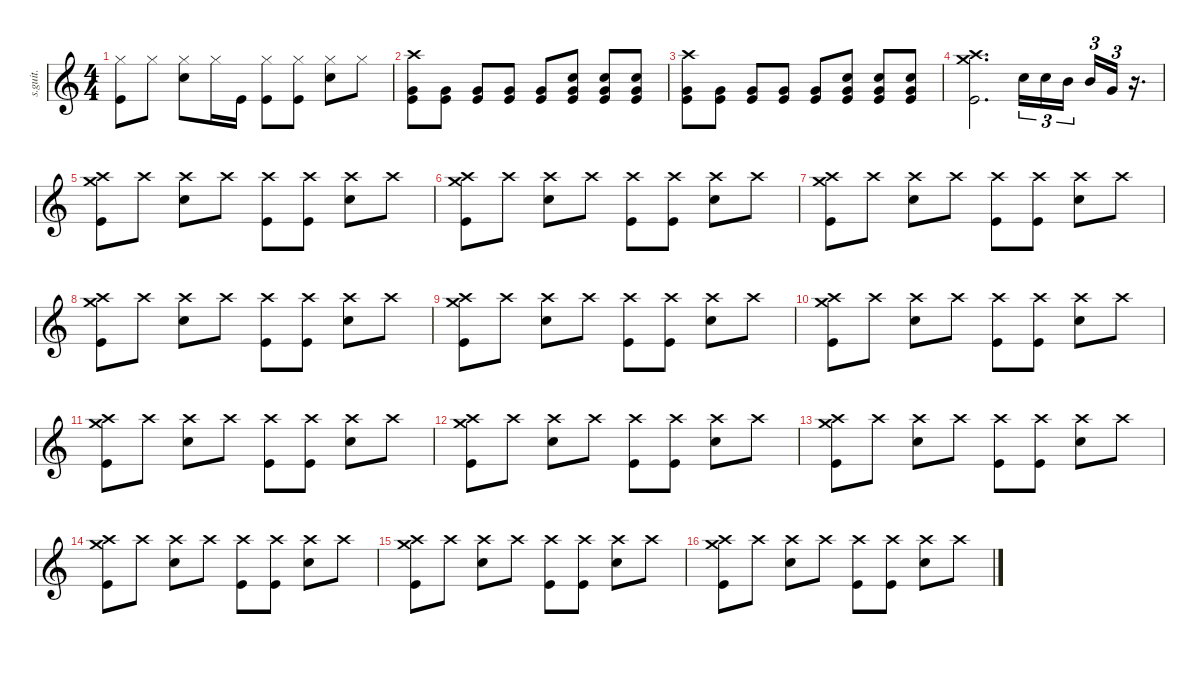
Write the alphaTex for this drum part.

\defaultSystemsLayout 4
\hideDynamics
\bracketExtendMode nobrackets
\track ("Drumkit" "s.guit.") {instrument percussion}
\staff {score}
\articulation defaults
\ts (4 4)
\tempo (65 hide)
\clef g2
\ks c
("Kick (hit)" "Hi-Hat (closed)").8{lyrics (0 "") lyrics (1 "") lyrics (2 "") lyrics (3 "") lyrics (4 "") dy mf} "Hi-Hat (closed)".8{lyrics (0 "") lyrics (1 "") lyrics (2 "") lyrics (3 "") lyrics (4 "")} ("Hi-Hat (closed)" "Snare (hit) 2").8{lyrics (0 "") lyrics (1 "") lyrics (2 "") lyrics (3 "") lyrics (4 "")} "Hi-Hat (closed)".16{lyrics (0 "") lyrics (1 "") lyrics (2 "") lyrics (3 "") lyrics (4 "")} "Kick (hit)".16{lyrics (0 "") lyrics (1 "") lyrics (2 "") lyrics (3 "") lyrics (4 "") dy p} ("Hi-Hat (closed)" "Kick (hit)").8{lyrics (0 "") lyrics (1 "") lyrics (2 "") lyrics (3 "") lyrics (4 "") dy mf} ("Kick (hit)" "Hi-Hat (closed)").8{lyrics (0 "") lyrics (1 "") lyrics (2 "") lyrics (3 "") lyrics (4 "")} ("Hi-Hat (closed)" "Snare (hit) 2").8{lyrics (0 "") lyrics (1 "") lyrics (2 "") lyrics (3 "") lyrics (4 "")} "Hi-Hat (closed)".8{lyrics (0 "") lyrics (1 "") lyrics (2 "") lyrics (3 "") lyrics (4 "")} |
("Kick (hit)" "Very Low Tom (hit)" "Crash high (hit)").8{lyrics (0 "") lyrics (1 "") lyrics (2 "") lyrics (3 "") lyrics (4 "")} ("Very Low Tom (hit)" "Kick (hit)").8{lyrics (0 "") lyrics (1 "") lyrics (2 "") lyrics (3 "") lyrics (4 "")} ("Very Low Tom (hit)" "Kick (hit)").8{lyrics (0 "") lyrics (1 "") lyrics (2 "") lyrics (3 "") lyrics (4 "")} ("Kick (hit)" "Very Low Tom (hit)").8{lyrics (0 "") lyrics (1 "") lyrics (2 "") lyrics (3 "") lyrics (4 "")} ("Very Low Tom (hit)" "Kick (hit)").8{lyrics (0 "") lyrics (1 "") lyrics (2 "") lyrics (3 "") lyrics (4 "")} ("Snare (hit) 2" "Very Low Tom (hit)" "Kick (hit)").8{lyrics (0 "") lyrics (1 "") lyrics (2 "") lyrics (3 "") lyrics (4 "")} ("Snare (hit) 2" "Very Low Tom (hit)" "Kick (hit)").8{lyrics (0 "") lyrics (1 "") lyrics (2 "") lyrics (3 "") lyrics (4 "")} ("Snare (hit) 2" "Very Low Tom (hit)" "Kick (hit)").8{lyrics (0 "") lyrics (1 "") lyrics (2 "") lyrics (3 "") lyrics (4 "")} |
("Kick (hit)" "Very Low Tom (hit)" "Crash high (hit)").8{lyrics (0 "") lyrics (1 "") lyrics (2 "") lyrics (3 "") lyrics (4 "")} ("Very Low Tom (hit)" "Kick (hit)").8{lyrics (0 "") lyrics (1 "") lyrics (2 "") lyrics (3 "") lyrics (4 "")} ("Very Low Tom (hit)" "Kick (hit)").8{lyrics (0 "") lyrics (1 "") lyrics (2 "") lyrics (3 "") lyrics (4 "")} ("Kick (hit)" "Very Low Tom (hit)").8{lyrics (0 "") lyrics (1 "") lyrics (2 "") lyrics (3 "") lyrics (4 "")} ("Very Low Tom (hit)" "Kick (hit)").8{lyrics (0 "") lyrics (1 "") lyrics (2 "") lyrics (3 "") lyrics (4 "")} ("Snare (hit) 2" "Very Low Tom (hit)" "Kick (hit)").8{lyrics (0 "") lyrics (1 "") lyrics (2 "") lyrics (3 "") lyrics (4 "")} ("Snare (hit) 2" "Very Low Tom (hit)" "Kick (hit)").8{lyrics (0 "") lyrics (1 "") lyrics (2 "") lyrics (3 "") lyrics (4 "")} ("Very Low Tom (hit)" "Kick (hit)" "Snare (hit) 2").8{lyrics (0 "") lyrics (1 "") lyrics (2 "") lyrics (3 "") lyrics (4 "")} |
("Crash high (hit)" "Crash medium (hit)" "Kick (hit)").2{d lyrics (0 "") lyrics (1 "") lyrics (2 "") lyrics (3 "") lyrics (4 "")} "Snare (hit) 2".16{tu (3 2) lyrics (0 "") lyrics (1 "") lyrics (2 "") lyrics (3 "") lyrics (4 "")} "Snare (hit) 2".16{tu (3 2) lyrics (0 "") lyrics (1 "") lyrics (2 "") lyrics (3 "") lyrics (4 "")} "Mid Tom (hit)".16{tu (3 2) lyrics (0 "") lyrics (1 "") lyrics (2 "") lyrics (3 "") lyrics (4 "")} "Mid Tom (hit)".16{tu (3 2) lyrics (0 "") lyrics (1 "") lyrics (2 "") lyrics (3 "") lyrics (4 "")} "Very Low Tom (hit)".16{tu (3 2) lyrics (0 "") lyrics (1 "") lyrics (2 "") lyrics (3 "") lyrics (4 "")} r.16{d} |
("Crash high (hit)" "Crash medium (hit)" "Kick (hit)").8{lyrics (0 "") lyrics (1 "") lyrics (2 "") lyrics (3 "") lyrics (4 "")} "Crash high (hit)".8{lyrics (0 "") lyrics (1 "") lyrics (2 "") lyrics (3 "") lyrics (4 "")} ("Crash high (hit)" "Snare (hit) 2").8{lyrics (0 "") lyrics (1 "") lyrics (2 "") lyrics (3 "") lyrics (4 "")} "Crash high (hit)".8{lyrics (0 "") lyrics (1 "") lyrics (2 "") lyrics (3 "") lyrics (4 "")} ("Crash high (hit)" "Kick (hit)").8{lyrics (0 "") lyrics (1 "") lyrics (2 "") lyrics (3 "") lyrics (4 "")} ("Crash high (hit)" "Kick (hit)").8{lyrics (0 "") lyrics (1 "") lyrics (2 "") lyrics (3 "") lyrics (4 "")} ("Crash high (hit)" "Snare (hit) 2").8{lyrics (0 "") lyrics (1 "") lyrics (2 "") lyrics (3 "") lyrics (4 "")} "Crash high (hit)".8{lyrics (0 "") lyrics (1 "") lyrics (2 "") lyrics (3 "") lyrics (4 "")} |
("Crash high (hit)" "Crash medium (hit)" "Kick (hit)").8{lyrics (0 "") lyrics (1 "") lyrics (2 "") lyrics (3 "") lyrics (4 "")} "Crash high (hit)".8{lyrics (0 "") lyrics (1 "") lyrics (2 "") lyrics (3 "") lyrics (4 "")} ("Crash high (hit)" "Snare (hit) 2").8{lyrics (0 "") lyrics (1 "") lyrics (2 "") lyrics (3 "") lyrics (4 "")} "Crash high (hit)".8{lyrics (0 "") lyrics (1 "") lyrics (2 "") lyrics (3 "") lyrics (4 "")} ("Crash high (hit)" "Kick (hit)").8{lyrics (0 "") lyrics (1 "") lyrics (2 "") lyrics (3 "") lyrics (4 "")} ("Crash high (hit)" "Kick (hit)").8{lyrics (0 "") lyrics (1 "") lyrics (2 "") lyrics (3 "") lyrics (4 "")} ("Crash high (hit)" "Snare (hit) 2").8{lyrics (0 "") lyrics (1 "") lyrics (2 "") lyrics (3 "") lyrics (4 "")} "Crash high (hit)".8{lyrics (0 "") lyrics (1 "") lyrics (2 "") lyrics (3 "") lyrics (4 "")} |
("Crash high (hit)" "Crash medium (hit)" "Kick (hit)").8{lyrics (0 "") lyrics (1 "") lyrics (2 "") lyrics (3 "") lyrics (4 "")} "Crash high (hit)".8{lyrics (0 "") lyrics (1 "") lyrics (2 "") lyrics (3 "") lyrics (4 "")} ("Crash high (hit)" "Snare (hit) 2").8{lyrics (0 "") lyrics (1 "") lyrics (2 "") lyrics (3 "") lyrics (4 "")} "Crash high (hit)".8{lyrics (0 "") lyrics (1 "") lyrics (2 "") lyrics (3 "") lyrics (4 "")} ("Crash high (hit)" "Kick (hit)").8{lyrics (0 "") lyrics (1 "") lyrics (2 "") lyrics (3 "") lyrics (4 "")} ("Crash high (hit)" "Kick (hit)").8{lyrics (0 "") lyrics (1 "") lyrics (2 "") lyrics (3 "") lyrics (4 "")} ("Crash high (hit)" "Snare (hit) 2").8{lyrics (0 "") lyrics (1 "") lyrics (2 "") lyrics (3 "") lyrics (4 "")} "Crash high (hit)".8{lyrics (0 "") lyrics (1 "") lyrics (2 "") lyrics (3 "") lyrics (4 "")} |
("Crash high (hit)" "Crash medium (hit)" "Kick (hit)").8{lyrics (0 "") lyrics (1 "") lyrics (2 "") lyrics (3 "") lyrics (4 "")} "Crash high (hit)".8{lyrics (0 "") lyrics (1 "") lyrics (2 "") lyrics (3 "") lyrics (4 "")} ("Crash high (hit)" "Snare (hit) 2").8{lyrics (0 "") lyrics (1 "") lyrics (2 "") lyrics (3 "") lyrics (4 "")} "Crash high (hit)".8{lyrics (0 "") lyrics (1 "") lyrics (2 "") lyrics (3 "") lyrics (4 "")} ("Crash high (hit)" "Kick (hit)").8{lyrics (0 "") lyrics (1 "") lyrics (2 "") lyrics (3 "") lyrics (4 "")} ("Crash high (hit)" "Kick (hit)").8{lyrics (0 "") lyrics (1 "") lyrics (2 "") lyrics (3 "") lyrics (4 "")} ("Crash high (hit)" "Snare (hit) 2").8{lyrics (0 "") lyrics (1 "") lyrics (2 "") lyrics (3 "") lyrics (4 "")} "Crash high (hit)".8{lyrics (0 "") lyrics (1 "") lyrics (2 "") lyrics (3 "") lyrics (4 "")} |
("Crash high (hit)" "Crash medium (hit)" "Kick (hit)").8{lyrics (0 "") lyrics (1 "") lyrics (2 "") lyrics (3 "") lyrics (4 "")} "Crash high (hit)".8{lyrics (0 "") lyrics (1 "") lyrics (2 "") lyrics (3 "") lyrics (4 "")} ("Crash high (hit)" "Snare (hit) 2").8{lyrics (0 "") lyrics (1 "") lyrics (2 "") lyrics (3 "") lyrics (4 "")} "Crash high (hit)".8{lyrics (0 "") lyrics (1 "") lyrics (2 "") lyrics (3 "") lyrics (4 "")} ("Crash high (hit)" "Kick (hit)").8{lyrics (0 "") lyrics (1 "") lyrics (2 "") lyrics (3 "") lyrics (4 "")} ("Crash high (hit)" "Kick (hit)").8{lyrics (0 "") lyrics (1 "") lyrics (2 "") lyrics (3 "") lyrics (4 "")} ("Crash high (hit)" "Snare (hit) 2").8{lyrics (0 "") lyrics (1 "") lyrics (2 "") lyrics (3 "") lyrics (4 "")} "Crash high (hit)".8{lyrics (0 "") lyrics (1 "") lyrics (2 "") lyrics (3 "") lyrics (4 "")} |
("Crash high (hit)" "Crash medium (hit)" "Kick (hit)").8{lyrics (0 "") lyrics (1 "") lyrics (2 "") lyrics (3 "") lyrics (4 "")} "Crash high (hit)".8{lyrics (0 "") lyrics (1 "") lyrics (2 "") lyrics (3 "") lyrics (4 "")} ("Crash high (hit)" "Snare (hit) 2").8{lyrics (0 "") lyrics (1 "") lyrics (2 "") lyrics (3 "") lyrics (4 "")} "Crash high (hit)".8{lyrics (0 "") lyrics (1 "") lyrics (2 "") lyrics (3 "") lyrics (4 "")} ("Crash high (hit)" "Kick (hit)").8{lyrics (0 "") lyrics (1 "") lyrics (2 "") lyrics (3 "") lyrics (4 "")} ("Crash high (hit)" "Kick (hit)").8{lyrics (0 "") lyrics (1 "") lyrics (2 "") lyrics (3 "") lyrics (4 "")} ("Crash high (hit)" "Snare (hit) 2").8{lyrics (0 "") lyrics (1 "") lyrics (2 "") lyrics (3 "") lyrics (4 "")} "Crash high (hit)".8{lyrics (0 "") lyrics (1 "") lyrics (2 "") lyrics (3 "") lyrics (4 "")} |
("Crash high (hit)" "Crash medium (hit)" "Kick (hit)").8{lyrics (0 "") lyrics (1 "") lyrics (2 "") lyrics (3 "") lyrics (4 "")} "Crash high (hit)".8{lyrics (0 "") lyrics (1 "") lyrics (2 "") lyrics (3 "") lyrics (4 "")} ("Crash high (hit)" "Snare (hit) 2").8{lyrics (0 "") lyrics (1 "") lyrics (2 "") lyrics (3 "") lyrics (4 "")} "Crash high (hit)".8{lyrics (0 "") lyrics (1 "") lyrics (2 "") lyrics (3 "") lyrics (4 "")} ("Crash high (hit)" "Kick (hit)").8{lyrics (0 "") lyrics (1 "") lyrics (2 "") lyrics (3 "") lyrics (4 "")} ("Crash high (hit)" "Kick (hit)").8{lyrics (0 "") lyrics (1 "") lyrics (2 "") lyrics (3 "") lyrics (4 "")} ("Crash high (hit)" "Snare (hit) 2").8{lyrics (0 "") lyrics (1 "") lyrics (2 "") lyrics (3 "") lyrics (4 "")} "Crash high (hit)".8{lyrics (0 "") lyrics (1 "") lyrics (2 "") lyrics (3 "") lyrics (4 "")} |
("Crash high (hit)" "Crash medium (hit)" "Kick (hit)").8{lyrics (0 "") lyrics (1 "") lyrics (2 "") lyrics (3 "") lyrics (4 "")} "Crash high (hit)".8{lyrics (0 "") lyrics (1 "") lyrics (2 "") lyrics (3 "") lyrics (4 "")} ("Crash high (hit)" "Snare (hit) 2").8{lyrics (0 "") lyrics (1 "") lyrics (2 "") lyrics (3 "") lyrics (4 "")} "Crash high (hit)".8{lyrics (0 "") lyrics (1 "") lyrics (2 "") lyrics (3 "") lyrics (4 "")} ("Crash high (hit)" "Kick (hit)").8{lyrics (0 "") lyrics (1 "") lyrics (2 "") lyrics (3 "") lyrics (4 "")} ("Crash high (hit)" "Kick (hit)").8{lyrics (0 "") lyrics (1 "") lyrics (2 "") lyrics (3 "") lyrics (4 "")} ("Crash high (hit)" "Snare (hit) 2").8{lyrics (0 "") lyrics (1 "") lyrics (2 "") lyrics (3 "") lyrics (4 "")} "Crash high (hit)".8{lyrics (0 "") lyrics (1 "") lyrics (2 "") lyrics (3 "") lyrics (4 "")} |
("Crash high (hit)" "Crash medium (hit)" "Kick (hit)").8{lyrics (0 "") lyrics (1 "") lyrics (2 "") lyrics (3 "") lyrics (4 "")} "Crash high (hit)".8{lyrics (0 "") lyrics (1 "") lyrics (2 "") lyrics (3 "") lyrics (4 "")} ("Crash high (hit)" "Snare (hit) 2").8{lyrics (0 "") lyrics (1 "") lyrics (2 "") lyrics (3 "") lyrics (4 "")} "Crash high (hit)".8{lyrics (0 "") lyrics (1 "") lyrics (2 "") lyrics (3 "") lyrics (4 "")} ("Crash high (hit)" "Kick (hit)").8{lyrics (0 "") lyrics (1 "") lyrics (2 "") lyrics (3 "") lyrics (4 "")} ("Crash high (hit)" "Kick (hit)").8{lyrics (0 "") lyrics (1 "") lyrics (2 "") lyrics (3 "") lyrics (4 "")} ("Crash high (hit)" "Snare (hit) 2").8{lyrics (0 "") lyrics (1 "") lyrics (2 "") lyrics (3 "") lyrics (4 "")} "Crash high (hit)".8{lyrics (0 "") lyrics (1 "") lyrics (2 "") lyrics (3 "") lyrics (4 "")} |
("Crash high (hit)" "Crash medium (hit)" "Kick (hit)").8{lyrics (0 "") lyrics (1 "") lyrics (2 "") lyrics (3 "") lyrics (4 "")} "Crash high (hit)".8{lyrics (0 "") lyrics (1 "") lyrics (2 "") lyrics (3 "") lyrics (4 "")} ("Crash high (hit)" "Snare (hit) 2").8{lyrics (0 "") lyrics (1 "") lyrics (2 "") lyrics (3 "") lyrics (4 "")} "Crash high (hit)".8{lyrics (0 "") lyrics (1 "") lyrics (2 "") lyrics (3 "") lyrics (4 "")} ("Crash high (hit)" "Kick (hit)").8{lyrics (0 "") lyrics (1 "") lyrics (2 "") lyrics (3 "") lyrics (4 "")} ("Crash high (hit)" "Kick (hit)").8{lyrics (0 "") lyrics (1 "") lyrics (2 "") lyrics (3 "") lyrics (4 "")} ("Crash high (hit)" "Snare (hit) 2").8{lyrics (0 "") lyrics (1 "") lyrics (2 "") lyrics (3 "") lyrics (4 "")} "Crash high (hit)".8{lyrics (0 "") lyrics (1 "") lyrics (2 "") lyrics (3 "") lyrics (4 "")} |
("Crash high (hit)" "Crash medium (hit)" "Kick (hit)").8{lyrics (0 "") lyrics (1 "") lyrics (2 "") lyrics (3 "") lyrics (4 "")} "Crash high (hit)".8{lyrics (0 "") lyrics (1 "") lyrics (2 "") lyrics (3 "") lyrics (4 "")} ("Crash high (hit)" "Snare (hit) 2").8{lyrics (0 "") lyrics (1 "") lyrics (2 "") lyrics (3 "") lyrics (4 "")} "Crash high (hit)".8{lyrics (0 "") lyrics (1 "") lyrics (2 "") lyrics (3 "") lyrics (4 "")} ("Crash high (hit)" "Kick (hit)").8{lyrics (0 "") lyrics (1 "") lyrics (2 "") lyrics (3 "") lyrics (4 "")} ("Crash high (hit)" "Kick (hit)").8{lyrics (0 "") lyrics (1 "") lyrics (2 "") lyrics (3 "") lyrics (4 "")} ("Crash high (hit)" "Snare (hit) 2").8{lyrics (0 "") lyrics (1 "") lyrics (2 "") lyrics (3 "") lyrics (4 "")} "Crash high (hit)".8{lyrics (0 "") lyrics (1 "") lyrics (2 "") lyrics (3 "") lyrics (4 "")} |
("Crash high (hit)" "Crash medium (hit)" "Kick (hit)").8{lyrics (0 "") lyrics (1 "") lyrics (2 "") lyrics (3 "") lyrics (4 "")} "Crash high (hit)".8{lyrics (0 "") lyrics (1 "") lyrics (2 "") lyrics (3 "") lyrics (4 "")} ("Crash high (hit)" "Snare (hit) 2").8{lyrics (0 "") lyrics (1 "") lyrics (2 "") lyrics (3 "") lyrics (4 "")} "Crash high (hit)".8{lyrics (0 "") lyrics (1 "") lyrics (2 "") lyrics (3 "") lyrics (4 "")} ("Crash high (hit)" "Kick (hit)").8{lyrics (0 "") lyrics (1 "") lyrics (2 "") lyrics (3 "") lyrics (4 "")} ("Crash high (hit)" "Kick (hit)").8{lyrics (0 "") lyrics (1 "") lyrics (2 "") lyrics (3 "") lyrics (4 "")} ("Crash high (hit)" "Snare (hit) 2").8{lyrics (0 "") lyrics (1 "") lyrics (2 "") lyrics (3 "") lyrics (4 "")} "Crash high (hit)".8{lyrics (0 "") lyrics (1 "") lyrics (2 "") lyrics (3 "") lyrics (4 "")}
